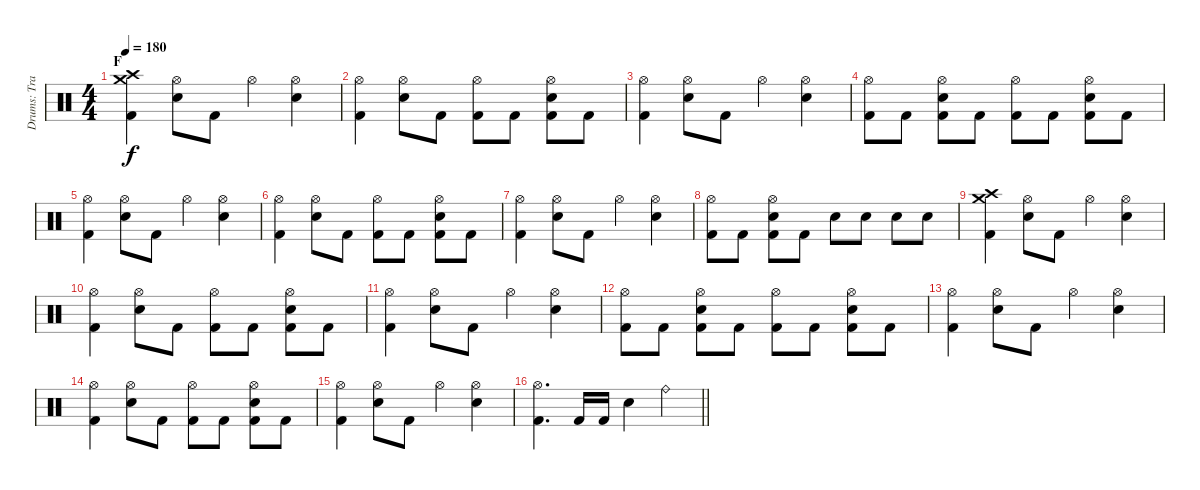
\track ("Drums: Travis Clarke" "Drums: Tra") {instrument percussion}
\staff {score}
\articulation defaults
\ts (4 4)
\section ("" "F")
\tempo 180
\clef neutral
\ks c
("Kick (hit) 2" "Crash high (hit)" "Crash medium (hit)").4{dy f} ("Snare (hit) 2" "Hi-Hat (open)").8 "Kick (hit) 2".8 "Hi-Hat (open)".4 ("Snare (hit) 2" "Hi-Hat (open)").4 |
("Kick (hit) 2" "Hi-Hat (open)").4 ("Snare (hit) 2" "Hi-Hat (open)").8 "Kick (hit) 2".8 ("Kick (hit) 2" "Hi-Hat (open)").8 "Kick (hit) 2".8 ("Kick (hit) 2" "Snare (hit) 2" "Hi-Hat (open)").8 "Kick (hit) 2".8 |
("Kick (hit) 2" "Hi-Hat (open)").4 ("Snare (hit) 2" "Hi-Hat (open)").8 "Kick (hit) 2".8 "Hi-Hat (open)".4 ("Snare (hit) 2" "Hi-Hat (open)").4 |
("Kick (hit) 2" "Hi-Hat (open)").8 "Kick (hit) 2".8 ("Kick (hit) 2" "Snare (hit) 2" "Hi-Hat (open)").8 "Kick (hit) 2".8 ("Kick (hit) 2" "Hi-Hat (open)").8 "Kick (hit) 2".8 ("Kick (hit) 2" "Snare (hit) 2" "Hi-Hat (open)").8 "Kick (hit) 2".8 |
("Kick (hit) 2" "Hi-Hat (open)").4 ("Snare (hit) 2" "Hi-Hat (open)").8 "Kick (hit) 2".8 "Hi-Hat (open)".4 ("Snare (hit) 2" "Hi-Hat (open)").4 |
("Kick (hit) 2" "Hi-Hat (open)").4 ("Snare (hit) 2" "Hi-Hat (open)").8 "Kick (hit) 2".8 ("Kick (hit) 2" "Hi-Hat (open)").8 "Kick (hit) 2".8 ("Kick (hit) 2" "Snare (hit) 2" "Hi-Hat (open)").8 "Kick (hit) 2".8 |
("Kick (hit) 2" "Hi-Hat (open)").4 ("Snare (hit) 2" "Hi-Hat (open)").8 "Kick (hit) 2".8 "Hi-Hat (open)".4 ("Snare (hit) 2" "Hi-Hat (open)").4 |
("Kick (hit) 2" "Hi-Hat (open)").8 "Kick (hit) 2".8 ("Kick (hit) 2" "Snare (hit) 2" "Hi-Hat (open)").8 "Kick (hit) 2".8 "Snare (hit) 2".8 "Snare (hit) 2".8 "Snare (hit) 2".8 "Snare (hit) 2".8 |
("Kick (hit) 2" "Crash high (hit)" "Crash medium (hit)").4 ("Snare (hit) 2" "Hi-Hat (open)").8 "Kick (hit) 2".8 "Hi-Hat (open)".4 ("Snare (hit) 2" "Hi-Hat (open)").4 |
("Kick (hit) 2" "Hi-Hat (open)").4 ("Snare (hit) 2" "Hi-Hat (open)").8 "Kick (hit) 2".8 ("Kick (hit) 2" "Hi-Hat (open)").8 "Kick (hit) 2".8 ("Kick (hit) 2" "Snare (hit) 2" "Hi-Hat (open)").8 "Kick (hit) 2".8 |
("Kick (hit) 2" "Hi-Hat (open)").4 ("Snare (hit) 2" "Hi-Hat (open)").8 "Kick (hit) 2".8 "Hi-Hat (open)".4 ("Snare (hit) 2" "Hi-Hat (open)").4 |
("Kick (hit) 2" "Hi-Hat (open)").8 "Kick (hit) 2".8 ("Kick (hit) 2" "Snare (hit) 2" "Hi-Hat (open)").8 "Kick (hit) 2".8 ("Kick (hit) 2" "Hi-Hat (open)").8 "Kick (hit) 2".8 ("Kick (hit) 2" "Snare (hit) 2" "Hi-Hat (open)").8 "Kick (hit) 2".8 |
("Kick (hit) 2" "Hi-Hat (open)").4 ("Snare (hit) 2" "Hi-Hat (open)").8 "Kick (hit) 2".8 "Hi-Hat (open)".4 ("Snare (hit) 2" "Hi-Hat (open)").4 |
("Kick (hit) 2" "Hi-Hat (open)").4 ("Snare (hit) 2" "Hi-Hat (open)").8 "Kick (hit) 2".8 ("Kick (hit) 2" "Hi-Hat (open)").8 "Kick (hit) 2".8 ("Kick (hit) 2" "Snare (hit) 2" "Hi-Hat (open)").8 "Kick (hit) 2".8 |
("Kick (hit) 2" "Hi-Hat (open)").4 ("Snare (hit) 2" "Hi-Hat (open)").8 "Kick (hit) 2".8 "Hi-Hat (open)".4 ("Snare (hit) 2" "Hi-Hat (open)").4 |
\barLineRight lightlight
("Kick (hit) 2" "Hi-Hat (open)").4{d} "Kick (hit) 2".16 "Kick (hit) 2".16 "Snare (hit) 2".4 "Ride (bell)".4
